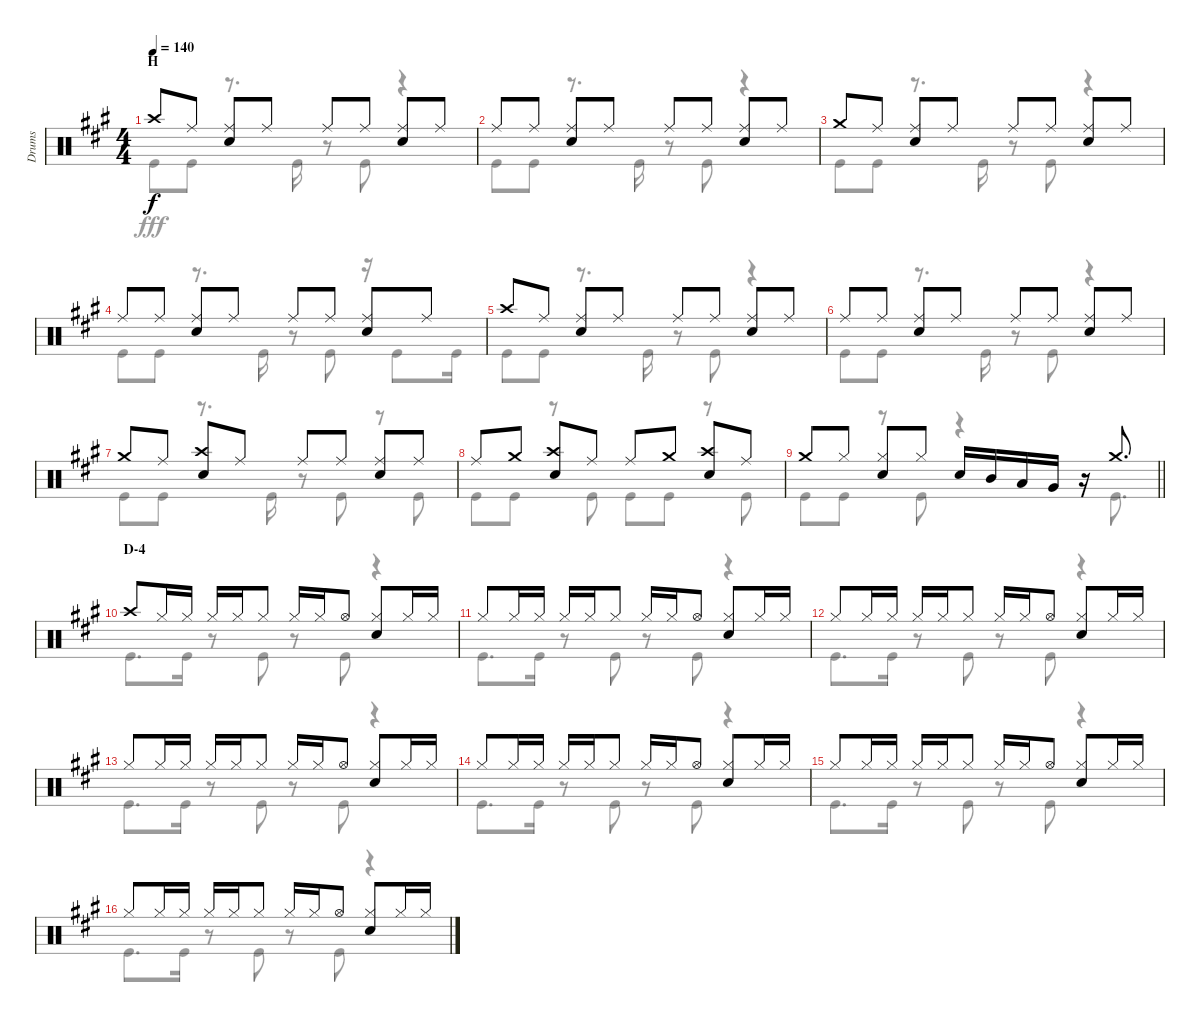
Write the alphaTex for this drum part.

\track ("Drums" "Drums") {instrument percussion}
\staff {score}
\articulation defaults
\voice
\ts (4 4)
\section ("" "H")
\tempo 140
\clef neutral
\ks a "Crash high (hit)".8{dy f} "Ride (middle)".8
("Ride (middle)" "Snare (hit) 2").8 "Ride (middle)".8 "Ride (middle)".8 "Ride (middle)".8 ("Ride (middle)" "Snare (hit) 2").8 "Ride (middle)".8 |
"Ride (middle)".8 "Ride (middle)".8 ("Ride (middle)" "Snare (hit) 2").8 "Ride (middle)".8 "Ride (middle)".8 "Ride (middle)".8 ("Ride (middle)" "Snare (hit) 2").8 "Ride (middle)".8 |
"Crash medium (hit)".8 "Ride (middle)".8 ("Ride (middle)" "Snare (hit) 2").8 "Ride (middle)".8 "Ride (middle)".8 "Ride (middle)".8 ("Ride (middle)" "Snare (hit) 2").8 "Ride (middle)".8 |
"Ride (middle)".8 "Ride (middle)".8 ("Ride (middle)" "Snare (hit) 2").8 "Ride (middle)".8 "Ride (middle)".8 "Ride (middle)".8 ("Ride (middle)" "Snare (hit) 2").8 "Ride (middle)".8 |
"Crash high (hit)".8 "Ride (middle)".8 ("Ride (middle)" "Snare (hit) 2").8 "Ride (middle)".8 "Ride (middle)".8 "Ride (middle)".8 ("Ride (middle)" "Snare (hit) 2").8 "Ride (middle)".8 |
"Ride (middle)".8 "Ride (middle)".8 ("Ride (middle)" "Snare (hit) 2").8 "Ride (middle)".8 "Ride (middle)".8 "Ride (middle)".8 ("Ride (middle)" "Snare (hit) 2").8 "Ride (middle)".8 |
"Crash medium (hit)".8 "Ride (middle)".8 ("Crash high (hit)" "Snare (hit) 2").8 "Ride (middle)".8 "Ride (middle)".8 "Ride (middle)".8 ("Ride (middle)" "Snare (hit) 2").8 "Ride (middle)".8 |
"Ride (middle)".8 "Crash medium (hit)".8 ("Crash high (hit)" "Snare (hit) 2").8 "Ride (middle)".8 "Ride (middle)".8 "Crash medium (hit)".8 ("Crash high (hit)" "Snare (hit) 2").8 "Ride (middle)".8 |
\barLineRight lightlight "Crash medium (hit)".8 "Hi-Hat (closed)".8
("Hi-Hat (closed)" "Snare (hit) 2").8 "Hi-Hat (closed)".8 "Snare (hit) 2".16 "Mid Tom (hit)".16 "Low Tom (hit)".16 "Very Low Tom (hit)".16 r.16 "Crash medium (hit)".8{d} |
\section ("" "D-4")
"Crash high (hit)".8 "Hi-Hat (closed)".16 "Hi-Hat (closed)".16 "Hi-Hat (closed)".16 "Hi-Hat (closed)".16 "Hi-Hat (closed)".8 "Hi-Hat (closed)".16 "Hi-Hat (closed)".16 "Hi-Hat (open)".8 ("Hi-Hat (closed)" "Snare (hit) 2").8 "Hi-Hat (closed)".16 "Hi-Hat (closed)".16 |
"Hi-Hat (closed)".8 "Hi-Hat (closed)".16 "Hi-Hat (closed)".16 "Hi-Hat (closed)".16 "Hi-Hat (closed)".16 "Hi-Hat (closed)".8 "Hi-Hat (closed)".16 "Hi-Hat (closed)".16 "Hi-Hat (open)".8 ("Hi-Hat (closed)" "Snare (hit) 2").8 "Hi-Hat (closed)".16 "Hi-Hat (closed)".16 |
"Hi-Hat (closed)".8 "Hi-Hat (closed)".16 "Hi-Hat (closed)".16 "Hi-Hat (closed)".16 "Hi-Hat (closed)".16 "Hi-Hat (closed)".8 "Hi-Hat (closed)".16 "Hi-Hat (closed)".16 "Hi-Hat (open)".8 ("Hi-Hat (closed)" "Snare (hit) 2").8 "Hi-Hat (closed)".16 "Hi-Hat (closed)".16 |
"Hi-Hat (closed)".8 "Hi-Hat (closed)".16 "Hi-Hat (closed)".16 "Hi-Hat (closed)".16 "Hi-Hat (closed)".16 "Hi-Hat (closed)".8 "Hi-Hat (closed)".16 "Hi-Hat (closed)".16 "Hi-Hat (open)".8 ("Hi-Hat (closed)" "Snare (hit) 2").8 "Hi-Hat (closed)".16 "Hi-Hat (closed)".16 |
"Hi-Hat (closed)".8 "Hi-Hat (closed)".16 "Hi-Hat (closed)".16 "Hi-Hat (closed)".16 "Hi-Hat (closed)".16 "Hi-Hat (closed)".8 "Hi-Hat (closed)".16 "Hi-Hat (closed)".16 "Hi-Hat (open)".8 ("Hi-Hat (closed)" "Snare (hit) 2").8 "Hi-Hat (closed)".16 "Hi-Hat (closed)".16 |
"Hi-Hat (closed)".8 "Hi-Hat (closed)".16 "Hi-Hat (closed)".16 "Hi-Hat (closed)".16 "Hi-Hat (closed)".16 "Hi-Hat (closed)".8 "Hi-Hat (closed)".16 "Hi-Hat (closed)".16 "Hi-Hat (open)".8 ("Hi-Hat (closed)" "Snare (hit) 2").8 "Hi-Hat (closed)".16 "Hi-Hat (closed)".16 |
"Hi-Hat (closed)".8 "Hi-Hat (closed)".16 "Hi-Hat (closed)".16 "Hi-Hat (closed)".16 "Hi-Hat (closed)".16 "Hi-Hat (closed)".8 "Hi-Hat (closed)".16 "Hi-Hat (closed)".16 "Hi-Hat (open)".8 ("Hi-Hat (closed)" "Snare (hit) 2").8 "Hi-Hat (closed)".16 "Hi-Hat (closed)".16
\voice
\clef neutral
\ottava regular
\simile none
\ks a "Kick (hit)".8{dy fff} "Kick (hit)".8
r.8{d} "Kick (hit)".16 r.8 "Kick (hit)".8 r.4 |
"Kick (hit)".8 "Kick (hit)".8 r.8{d} "Kick (hit)".16 r.8 "Kick (hit)".8 r.4 |
"Kick (hit)".8 "Kick (hit)".8 r.8{d} "Kick (hit)".16 r.8 "Kick (hit)".8 r.4 |
"Kick (hit)".8 "Kick (hit)".8 r.8{d} "Kick (hit)".16 r.8 "Kick (hit)".8 r.16 "Kick (hit)".8 "Kick (hit)".16 |
"Kick (hit)".8 "Kick (hit)".8 r.8{d} "Kick (hit)".16 r.8 "Kick (hit)".8 r.4 |
"Kick (hit)".8 "Kick (hit)".8 r.8{d} "Kick (hit)".16 r.8 "Kick (hit)".8 r.4 |
"Kick (hit)".8 "Kick (hit)".8 r.8{d} "Kick (hit)".16 r.8 "Kick (hit)".8 r.8 "Kick (hit)".8 |
"Kick (hit)".8 "Kick (hit)".8 r.8 "Kick (hit)".8 "Kick (hit)".8 "Kick (hit)".8 r.8 "Kick (hit)".8 |
\barLineRight lightlight "Kick (hit)".8 "Kick (hit)".8
r.8 "Kick (hit)".8 r.4 r.16 "Kick (hit)".8{d} |
"Kick (hit)".8{d} "Kick (hit)".16 r.8 "Kick (hit)".8 r.8 "Kick (hit)".8 r.4 |
"Kick (hit)".8{d} "Kick (hit)".16 r.8 "Kick (hit)".8 r.8 "Kick (hit)".8 r.4 |
"Kick (hit)".8{d} "Kick (hit)".16 r.8 "Kick (hit)".8 r.8 "Kick (hit)".8 r.4 |
"Kick (hit)".8{d} "Kick (hit)".16 r.8 "Kick (hit)".8 r.8 "Kick (hit)".8 r.4 |
"Kick (hit)".8{d} "Kick (hit)".16 r.8 "Kick (hit)".8 r.8 "Kick (hit)".8 r.4 |
"Kick (hit)".8{d} "Kick (hit)".16 r.8 "Kick (hit)".8 r.8 "Kick (hit)".8 r.4 |
"Kick (hit)".8{d} "Kick (hit)".16 r.8 "Kick (hit)".8 r.8 "Kick (hit)".8 r.4
